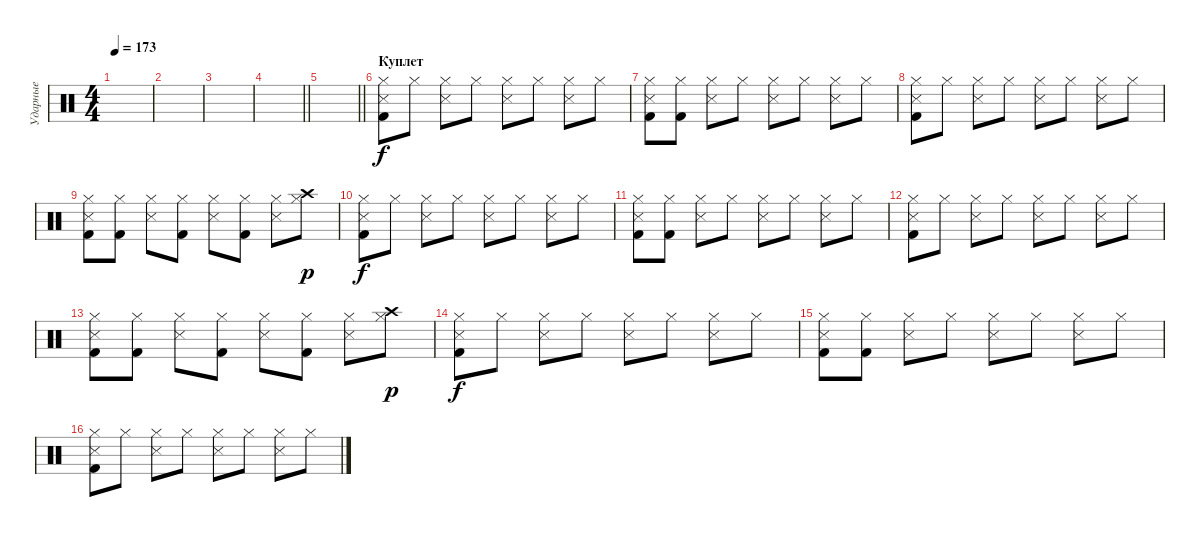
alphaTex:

\track ("Ударные" "Ударные") {instrument percussion}
\staff {score}
\articulation defaults
\ts (4 4)
\tempo 173
\clef neutral
\ks c
|
|
|
\barLineRight lightlight
|
\barLineRight lightlight
|
\section ("" "Куплет")
("Hi-Hat (closed)" "Snare (side stick) 3" "Kick (hit) 2").8 "Hi-Hat (closed)".8 ("Hi-Hat (closed)" "Snare (side stick) 3").8 "Hi-Hat (closed)".8 ("Hi-Hat (closed)" "Snare (side stick) 3").8 "Hi-Hat (closed)".8 ("Hi-Hat (closed)" "Snare (side stick) 3").8 "Hi-Hat (closed)".8 |
("Hi-Hat (closed)" "Snare (side stick) 3" "Kick (hit) 2").8 ("Hi-Hat (closed)" "Kick (hit) 2").8 ("Hi-Hat (closed)" "Snare (side stick) 3").8 "Hi-Hat (closed)".8 ("Hi-Hat (closed)" "Snare (side stick) 3").8 "Hi-Hat (closed)".8 ("Hi-Hat (closed)" "Snare (side stick) 3").8 "Hi-Hat (closed)".8 |
("Hi-Hat (closed)" "Snare (side stick) 3" "Kick (hit) 2").8 "Hi-Hat (closed)".8 ("Hi-Hat (closed)" "Snare (side stick) 3").8 "Hi-Hat (closed)".8 ("Hi-Hat (closed)" "Snare (side stick) 3").8 "Hi-Hat (closed)".8 ("Hi-Hat (closed)" "Snare (side stick) 3").8 "Hi-Hat (closed)".8 |
("Hi-Hat (closed)" "Snare (side stick) 3" "Kick (hit) 2").8 ("Hi-Hat (closed)" "Kick (hit) 2").8 ("Hi-Hat (closed)" "Snare (side stick) 3").8 ("Hi-Hat (closed)" "Kick (hit) 2").8 ("Hi-Hat (closed)" "Snare (side stick) 3").8 ("Hi-Hat (closed)" "Kick (hit) 2").8 ("Hi-Hat (closed)" "Snare (side stick) 3").8 ("Hi-Hat (closed)" "Crash high (hit)").8{dy p} |
("Hi-Hat (closed)" "Snare (side stick) 3" "Kick (hit) 2").8{dy f} "Hi-Hat (closed)".8 ("Hi-Hat (closed)" "Snare (side stick) 3").8 "Hi-Hat (closed)".8 ("Hi-Hat (closed)" "Snare (side stick) 3").8 "Hi-Hat (closed)".8 ("Hi-Hat (closed)" "Snare (side stick) 3").8 "Hi-Hat (closed)".8 |
("Hi-Hat (closed)" "Snare (side stick) 3" "Kick (hit) 2").8 ("Hi-Hat (closed)" "Kick (hit) 2").8 ("Hi-Hat (closed)" "Snare (side stick) 3").8 "Hi-Hat (closed)".8 ("Hi-Hat (closed)" "Snare (side stick) 3").8 "Hi-Hat (closed)".8 ("Hi-Hat (closed)" "Snare (side stick) 3").8 "Hi-Hat (closed)".8 |
("Hi-Hat (closed)" "Snare (side stick) 3" "Kick (hit) 2").8 "Hi-Hat (closed)".8 ("Hi-Hat (closed)" "Snare (side stick) 3").8 "Hi-Hat (closed)".8 ("Hi-Hat (closed)" "Snare (side stick) 3").8 "Hi-Hat (closed)".8 ("Hi-Hat (closed)" "Snare (side stick) 3").8 "Hi-Hat (closed)".8 |
("Hi-Hat (closed)" "Snare (side stick) 3" "Kick (hit) 2").8 ("Hi-Hat (closed)" "Kick (hit) 2").8 ("Hi-Hat (closed)" "Snare (side stick) 3").8 ("Hi-Hat (closed)" "Kick (hit) 2").8 ("Hi-Hat (closed)" "Snare (side stick) 3").8 ("Hi-Hat (closed)" "Kick (hit) 2").8 ("Hi-Hat (closed)" "Snare (side stick) 3").8 ("Hi-Hat (closed)" "Crash high (hit)").8{dy p} |
("Hi-Hat (closed)" "Snare (side stick) 3" "Kick (hit) 2").8{dy f} "Hi-Hat (closed)".8 ("Hi-Hat (closed)" "Snare (side stick) 3").8 "Hi-Hat (closed)".8 ("Hi-Hat (closed)" "Snare (side stick) 3").8 "Hi-Hat (closed)".8 ("Hi-Hat (closed)" "Snare (side stick) 3").8 "Hi-Hat (closed)".8 |
("Hi-Hat (closed)" "Snare (side stick) 3" "Kick (hit) 2").8 ("Hi-Hat (closed)" "Kick (hit) 2").8 ("Hi-Hat (closed)" "Snare (side stick) 3").8 "Hi-Hat (closed)".8 ("Hi-Hat (closed)" "Snare (side stick) 3").8 "Hi-Hat (closed)".8 ("Hi-Hat (closed)" "Snare (side stick) 3").8 "Hi-Hat (closed)".8 |
("Hi-Hat (closed)" "Snare (side stick) 3" "Kick (hit) 2").8 "Hi-Hat (closed)".8 ("Hi-Hat (closed)" "Snare (side stick) 3").8 "Hi-Hat (closed)".8 ("Hi-Hat (closed)" "Snare (side stick) 3").8 "Hi-Hat (closed)".8 ("Hi-Hat (closed)" "Snare (side stick) 3").8 "Hi-Hat (closed)".8
